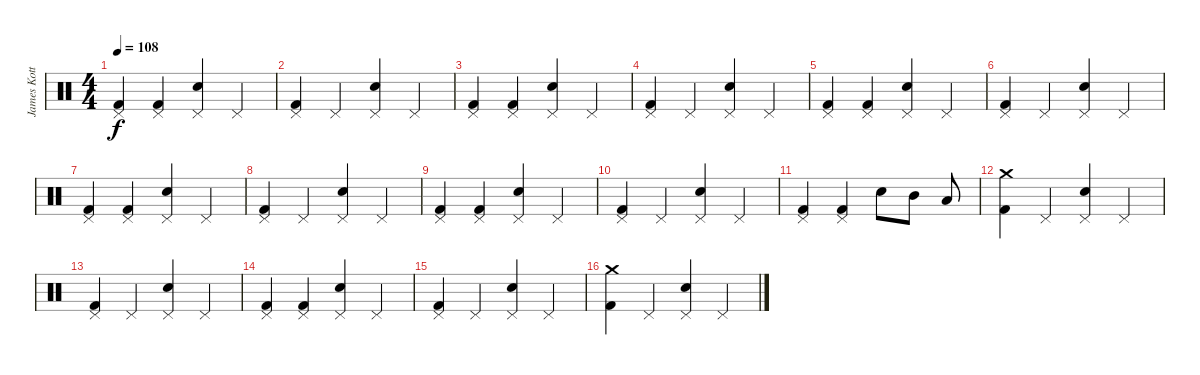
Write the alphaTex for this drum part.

\track ("James Kottak" "James Kott") {instrument percussion}
\staff {score}
\articulation defaults
\ts (4 4)
\tempo 108
\clef neutral
\ks c
("Pedal Hi-Hat (hit)" "Kick (hit) 2").4{dy f} ("Pedal Hi-Hat (hit)" "Kick (hit) 2").4 ("Pedal Hi-Hat (hit)" "Snare (hit) 2").4 "Pedal Hi-Hat (hit)".4 |
("Pedal Hi-Hat (hit)" "Kick (hit) 2").4 "Pedal Hi-Hat (hit)".4 ("Pedal Hi-Hat (hit)" "Snare (hit) 2").4 "Pedal Hi-Hat (hit)".4 |
("Pedal Hi-Hat (hit)" "Kick (hit) 2").4 ("Pedal Hi-Hat (hit)" "Kick (hit) 2").4 ("Pedal Hi-Hat (hit)" "Snare (hit) 2").4 "Pedal Hi-Hat (hit)".4 |
("Pedal Hi-Hat (hit)" "Kick (hit) 2").4 "Pedal Hi-Hat (hit)".4 ("Pedal Hi-Hat (hit)" "Snare (hit) 2").4 "Pedal Hi-Hat (hit)".4 |
("Pedal Hi-Hat (hit)" "Kick (hit) 2").4 ("Pedal Hi-Hat (hit)" "Kick (hit) 2").4 ("Pedal Hi-Hat (hit)" "Snare (hit) 2").4 "Pedal Hi-Hat (hit)".4 |
("Pedal Hi-Hat (hit)" "Kick (hit) 2").4 "Pedal Hi-Hat (hit)".4 ("Pedal Hi-Hat (hit)" "Snare (hit) 2").4 "Pedal Hi-Hat (hit)".4 |
("Pedal Hi-Hat (hit)" "Kick (hit) 2").4 ("Pedal Hi-Hat (hit)" "Kick (hit) 2").4 ("Pedal Hi-Hat (hit)" "Snare (hit) 2").4 "Pedal Hi-Hat (hit)".4 |
("Pedal Hi-Hat (hit)" "Kick (hit) 2").4 "Pedal Hi-Hat (hit)".4 ("Pedal Hi-Hat (hit)" "Snare (hit) 2").4 "Pedal Hi-Hat (hit)".4 |
("Pedal Hi-Hat (hit)" "Kick (hit) 2").4 ("Pedal Hi-Hat (hit)" "Kick (hit) 2").4 ("Pedal Hi-Hat (hit)" "Snare (hit) 2").4 "Pedal Hi-Hat (hit)".4 |
("Pedal Hi-Hat (hit)" "Kick (hit) 2").4 "Pedal Hi-Hat (hit)".4 ("Pedal Hi-Hat (hit)" "Snare (hit) 2").4 "Pedal Hi-Hat (hit)".4 |
("Pedal Hi-Hat (hit)" "Kick (hit) 2").4 ("Pedal Hi-Hat (hit)" "Kick (hit) 2").4 "Snare (hit) 2".8 "Mid Tom (hit)".8 "Low Tom (hit)".8 |
("Crash medium (hit)" "Kick (hit) 2").4 "Pedal Hi-Hat (hit)".4 ("Pedal Hi-Hat (hit)" "Snare (hit) 2").4 "Pedal Hi-Hat (hit)".4 |
("Pedal Hi-Hat (hit)" "Kick (hit) 2").4 "Pedal Hi-Hat (hit)".4 ("Pedal Hi-Hat (hit)" "Snare (hit) 2").4 "Pedal Hi-Hat (hit)".4 |
("Pedal Hi-Hat (hit)" "Kick (hit) 2").4 ("Pedal Hi-Hat (hit)" "Kick (hit) 2").4 ("Pedal Hi-Hat (hit)" "Snare (hit) 2").4 "Pedal Hi-Hat (hit)".4 |
("Pedal Hi-Hat (hit)" "Kick (hit) 2").4 "Pedal Hi-Hat (hit)".4 ("Pedal Hi-Hat (hit)" "Snare (hit) 2").4 "Pedal Hi-Hat (hit)".4 |
("Crash medium (hit)" "Kick (hit) 2").4 "Pedal Hi-Hat (hit)".4 ("Pedal Hi-Hat (hit)" "Snare (hit) 2").4 "Pedal Hi-Hat (hit)".4
